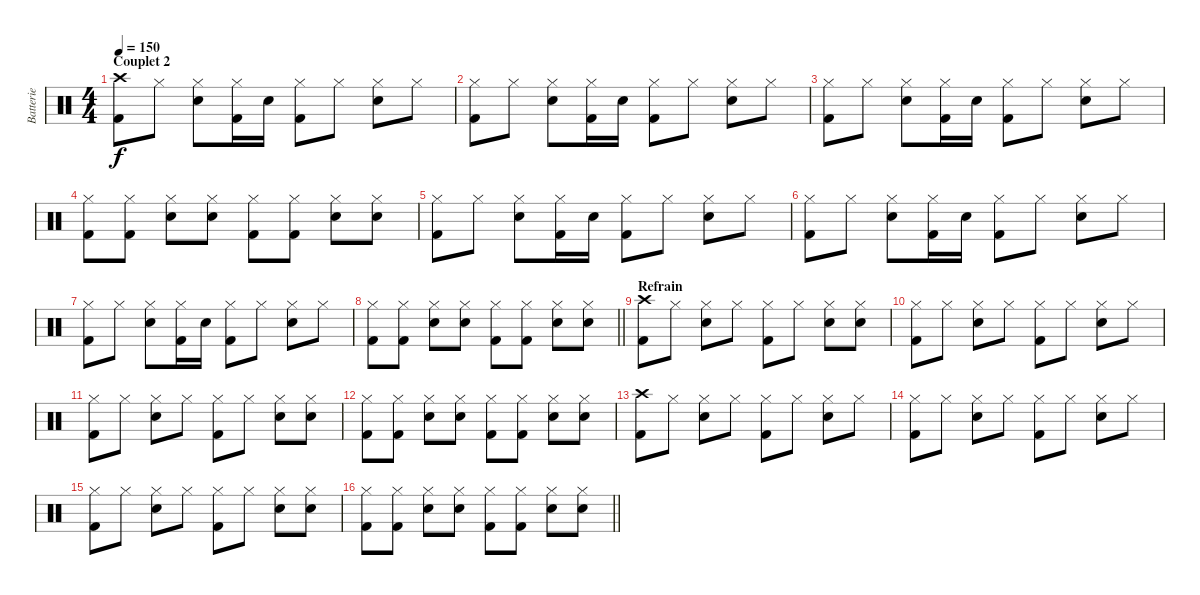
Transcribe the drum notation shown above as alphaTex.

\track ("Batterie" "Batterie") {instrument percussion}
\staff {score}
\articulation defaults
\ts (4 4)
\section ("" "Couplet 2")
\tempo 150
\clef neutral
\ks c
("Crash high (hit)" "Kick (hit) 2").8{dy f} "Hi-Hat (closed)".8 ("Hi-Hat (closed)" "Electric Snare (hit)").8 ("Hi-Hat (closed)" "Kick (hit) 2").16 "Electric Snare (hit)".16 ("Hi-Hat (closed)" "Kick (hit) 2").8 "Hi-Hat (closed)".8 ("Hi-Hat (closed)" "Electric Snare (hit)").8 "Hi-Hat (closed)".8 |
("Hi-Hat (closed)" "Kick (hit) 2").8 "Hi-Hat (closed)".8 ("Hi-Hat (closed)" "Electric Snare (hit)").8 ("Hi-Hat (closed)" "Kick (hit) 2").16 "Electric Snare (hit)".16 ("Hi-Hat (closed)" "Kick (hit) 2").8 "Hi-Hat (closed)".8 ("Hi-Hat (closed)" "Electric Snare (hit)").8 "Hi-Hat (closed)".8 |
("Hi-Hat (closed)" "Kick (hit) 2").8 "Hi-Hat (closed)".8 ("Hi-Hat (closed)" "Electric Snare (hit)").8 ("Hi-Hat (closed)" "Kick (hit) 2").16 "Electric Snare (hit)".16 ("Hi-Hat (closed)" "Kick (hit) 2").8 "Hi-Hat (closed)".8 ("Hi-Hat (closed)" "Electric Snare (hit)").8 "Hi-Hat (closed)".8 |
("Hi-Hat (closed)" "Kick (hit) 2").8 ("Hi-Hat (closed)" "Kick (hit) 2").8 ("Hi-Hat (closed)" "Electric Snare (hit)").8 ("Hi-Hat (closed)" "Electric Snare (hit)").8 ("Hi-Hat (closed)" "Kick (hit) 2").8 ("Hi-Hat (closed)" "Kick (hit) 2").8 ("Hi-Hat (closed)" "Electric Snare (hit)").8 ("Hi-Hat (closed)" "Electric Snare (hit)").8 |
("Hi-Hat (closed)" "Kick (hit) 2").8 "Hi-Hat (closed)".8 ("Hi-Hat (closed)" "Electric Snare (hit)").8 ("Hi-Hat (closed)" "Kick (hit) 2").16 "Electric Snare (hit)".16 ("Hi-Hat (closed)" "Kick (hit) 2").8 "Hi-Hat (closed)".8 ("Hi-Hat (closed)" "Electric Snare (hit)").8 "Hi-Hat (closed)".8 |
("Hi-Hat (closed)" "Kick (hit) 2").8 "Hi-Hat (closed)".8 ("Hi-Hat (closed)" "Electric Snare (hit)").8 ("Hi-Hat (closed)" "Kick (hit) 2").16 "Electric Snare (hit)".16 ("Hi-Hat (closed)" "Kick (hit) 2").8 "Hi-Hat (closed)".8 ("Hi-Hat (closed)" "Electric Snare (hit)").8 "Hi-Hat (closed)".8 |
("Hi-Hat (closed)" "Kick (hit) 2").8 "Hi-Hat (closed)".8 ("Hi-Hat (closed)" "Electric Snare (hit)").8 ("Hi-Hat (closed)" "Kick (hit) 2").16 "Electric Snare (hit)".16 ("Hi-Hat (closed)" "Kick (hit) 2").8 "Hi-Hat (closed)".8 ("Hi-Hat (closed)" "Electric Snare (hit)").8 "Hi-Hat (closed)".8 |
\barLineRight lightlight
("Hi-Hat (closed)" "Kick (hit) 2").8 ("Hi-Hat (closed)" "Kick (hit) 2").8 ("Hi-Hat (closed)" "Electric Snare (hit)").8 ("Hi-Hat (closed)" "Electric Snare (hit)").8 ("Hi-Hat (closed)" "Kick (hit) 2").8 ("Hi-Hat (closed)" "Kick (hit) 2").8 ("Hi-Hat (closed)" "Electric Snare (hit)").8 ("Hi-Hat (closed)" "Electric Snare (hit)").8 |
\section ("" "Refrain")
("Crash high (hit)" "Kick (hit) 2").8 "Hi-Hat (closed)".8 ("Hi-Hat (closed)" "Electric Snare (hit)").8 "Hi-Hat (closed)".8 ("Hi-Hat (closed)" "Kick (hit) 2").8 "Hi-Hat (closed)".8 ("Hi-Hat (closed)" "Electric Snare (hit)").8 ("Hi-Hat (closed)" "Electric Snare (hit)").8 |
("Hi-Hat (closed)" "Kick (hit) 2").8 "Hi-Hat (closed)".8 ("Hi-Hat (closed)" "Electric Snare (hit)").8 "Hi-Hat (closed)".8 ("Hi-Hat (closed)" "Kick (hit) 2").8 "Hi-Hat (closed)".8 ("Hi-Hat (closed)" "Electric Snare (hit)").8 "Hi-Hat (closed)".8 |
("Hi-Hat (closed)" "Kick (hit) 2").8 "Hi-Hat (closed)".8 ("Hi-Hat (closed)" "Electric Snare (hit)").8 "Hi-Hat (closed)".8 ("Hi-Hat (closed)" "Kick (hit) 2").8 "Hi-Hat (closed)".8 ("Hi-Hat (closed)" "Electric Snare (hit)").8 ("Hi-Hat (closed)" "Electric Snare (hit)").8 |
("Hi-Hat (closed)" "Kick (hit) 2").8 ("Hi-Hat (closed)" "Kick (hit) 2").8 ("Hi-Hat (closed)" "Electric Snare (hit)").8 ("Hi-Hat (closed)" "Electric Snare (hit)").8 ("Hi-Hat (closed)" "Kick (hit) 2").8 ("Hi-Hat (closed)" "Kick (hit) 2").8 ("Hi-Hat (closed)" "Electric Snare (hit)").8 ("Hi-Hat (closed)" "Electric Snare (hit)").8 |
("Crash high (hit)" "Kick (hit) 2").8 "Hi-Hat (closed)".8 ("Hi-Hat (closed)" "Electric Snare (hit)").8 "Hi-Hat (closed)".8 ("Hi-Hat (closed)" "Kick (hit) 2").8 "Hi-Hat (closed)".8 ("Hi-Hat (closed)" "Electric Snare (hit)").8 "Hi-Hat (closed)".8 |
("Hi-Hat (closed)" "Kick (hit) 2").8 "Hi-Hat (closed)".8 ("Hi-Hat (closed)" "Electric Snare (hit)").8 "Hi-Hat (closed)".8 ("Hi-Hat (closed)" "Kick (hit) 2").8 "Hi-Hat (closed)".8 ("Hi-Hat (closed)" "Electric Snare (hit)").8 "Hi-Hat (closed)".8 |
("Hi-Hat (closed)" "Kick (hit) 2").8 "Hi-Hat (closed)".8 ("Hi-Hat (closed)" "Electric Snare (hit)").8 "Hi-Hat (closed)".8 ("Hi-Hat (closed)" "Kick (hit) 2").8 "Hi-Hat (closed)".8 ("Hi-Hat (closed)" "Electric Snare (hit)").8 ("Hi-Hat (closed)" "Electric Snare (hit)").8 |
\barLineRight lightlight
("Hi-Hat (closed)" "Kick (hit) 2").8 ("Hi-Hat (closed)" "Kick (hit) 2").8 ("Hi-Hat (closed)" "Electric Snare (hit)").8 ("Hi-Hat (closed)" "Electric Snare (hit)").8 ("Hi-Hat (closed)" "Kick (hit) 2").8 ("Hi-Hat (closed)" "Kick (hit) 2").8 ("Hi-Hat (closed)" "Electric Snare (hit)").8 ("Hi-Hat (closed)" "Electric Snare (hit)").8
